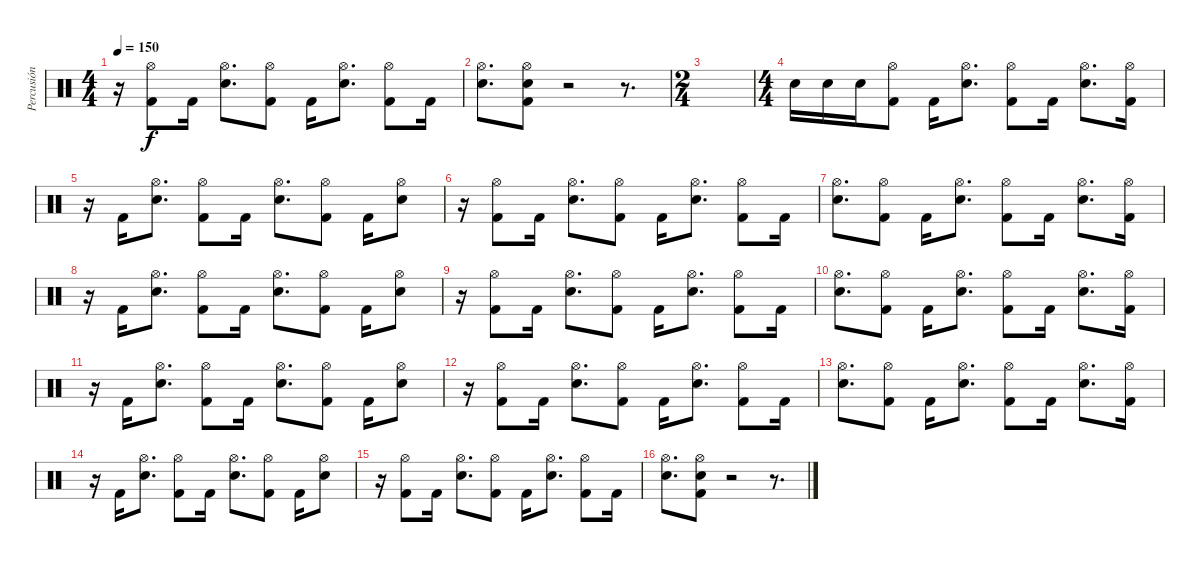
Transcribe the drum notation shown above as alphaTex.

\track ("Percusión" "Percusión") {instrument percussion}
\staff {score}
\articulation defaults
\ts (4 4)
\tempo 150
\clef neutral
\ks c
r.16{dy f} ("Hi-Hat (open)" "Kick (hit) 2").8 "Kick (hit) 2".16 ("Hi-Hat (open)" "Electric Snare (hit)").8{d} ("Hi-Hat (open)" "Kick (hit) 2").8 "Kick (hit) 2".16 ("Hi-Hat (open)" "Electric Snare (hit)").8{d} ("Hi-Hat (open)" "Kick (hit) 2").8 "Kick (hit) 2".16 |
("Hi-Hat (open)" "Electric Snare (hit)").8{d} ("Hi-Hat (open)" "Electric Snare (hit)" "Kick (hit) 2").8 r.2 r.8{d} |
\ts (2 4)
|
\ts (4 4)
"Electric Snare (hit)".16 "Electric Snare (hit)".16 "Electric Snare (hit)".16 ("Hi-Hat (open)" "Kick (hit) 2").8 "Kick (hit) 2".16 ("Hi-Hat (open)" "Electric Snare (hit)").8{d} ("Hi-Hat (open)" "Kick (hit) 2").8 "Kick (hit) 2".16 ("Hi-Hat (open)" "Electric Snare (hit)").8{d} ("Hi-Hat (open)" "Kick (hit) 2").16 |
r.16 "Kick (hit) 2".16 ("Hi-Hat (open)" "Electric Snare (hit)").8{d} ("Hi-Hat (open)" "Kick (hit) 2").8 "Kick (hit) 2".16 ("Hi-Hat (open)" "Electric Snare (hit)").8{d} ("Hi-Hat (open)" "Kick (hit) 2").8 "Kick (hit) 2".16 ("Hi-Hat (open)" "Electric Snare (hit)").8 |
r.16 ("Hi-Hat (open)" "Kick (hit) 2").8 "Kick (hit) 2".16 ("Hi-Hat (open)" "Electric Snare (hit)").8{d} ("Hi-Hat (open)" "Kick (hit) 2").8 "Kick (hit) 2".16 ("Hi-Hat (open)" "Electric Snare (hit)").8{d} ("Hi-Hat (open)" "Kick (hit) 2").8 "Kick (hit) 2".16 |
("Hi-Hat (open)" "Electric Snare (hit)").8{d} ("Hi-Hat (open)" "Kick (hit) 2").8 "Kick (hit) 2".16 ("Hi-Hat (open)" "Electric Snare (hit)").8{d} ("Hi-Hat (open)" "Kick (hit) 2").8 "Kick (hit) 2".16 ("Hi-Hat (open)" "Electric Snare (hit)").8{d} ("Hi-Hat (open)" "Kick (hit) 2").16 |
r.16 "Kick (hit) 2".16 ("Hi-Hat (open)" "Electric Snare (hit)").8{d} ("Hi-Hat (open)" "Kick (hit) 2").8 "Kick (hit) 2".16 ("Hi-Hat (open)" "Electric Snare (hit)").8{d} ("Hi-Hat (open)" "Kick (hit) 2").8 "Kick (hit) 2".16 ("Hi-Hat (open)" "Electric Snare (hit)").8 |
r.16 ("Hi-Hat (open)" "Kick (hit) 2").8 "Kick (hit) 2".16 ("Hi-Hat (open)" "Electric Snare (hit)").8{d} ("Hi-Hat (open)" "Kick (hit) 2").8 "Kick (hit) 2".16 ("Hi-Hat (open)" "Electric Snare (hit)").8{d} ("Hi-Hat (open)" "Kick (hit) 2").8 "Kick (hit) 2".16 |
("Hi-Hat (open)" "Electric Snare (hit)").8{d} ("Hi-Hat (open)" "Kick (hit) 2").8 "Kick (hit) 2".16 ("Hi-Hat (open)" "Electric Snare (hit)").8{d} ("Hi-Hat (open)" "Kick (hit) 2").8 "Kick (hit) 2".16 ("Hi-Hat (open)" "Electric Snare (hit)").8{d} ("Hi-Hat (open)" "Kick (hit) 2").16 |
r.16 "Kick (hit) 2".16 ("Hi-Hat (open)" "Electric Snare (hit)").8{d} ("Hi-Hat (open)" "Kick (hit) 2").8 "Kick (hit) 2".16 ("Hi-Hat (open)" "Electric Snare (hit)").8{d} ("Hi-Hat (open)" "Kick (hit) 2").8 "Kick (hit) 2".16 ("Hi-Hat (open)" "Electric Snare (hit)").8 |
r.16 ("Hi-Hat (open)" "Kick (hit) 2").8 "Kick (hit) 2".16 ("Hi-Hat (open)" "Electric Snare (hit)").8{d} ("Hi-Hat (open)" "Kick (hit) 2").8 "Kick (hit) 2".16 ("Hi-Hat (open)" "Electric Snare (hit)").8{d} ("Hi-Hat (open)" "Kick (hit) 2").8 "Kick (hit) 2".16 |
("Hi-Hat (open)" "Electric Snare (hit)").8{d} ("Hi-Hat (open)" "Kick (hit) 2").8 "Kick (hit) 2".16 ("Hi-Hat (open)" "Electric Snare (hit)").8{d} ("Hi-Hat (open)" "Kick (hit) 2").8 "Kick (hit) 2".16 ("Hi-Hat (open)" "Electric Snare (hit)").8{d} ("Hi-Hat (open)" "Kick (hit) 2").16 |
r.16 "Kick (hit) 2".16 ("Hi-Hat (open)" "Electric Snare (hit)").8{d} ("Hi-Hat (open)" "Kick (hit) 2").8 "Kick (hit) 2".16 ("Hi-Hat (open)" "Electric Snare (hit)").8{d} ("Hi-Hat (open)" "Kick (hit) 2").8 "Kick (hit) 2".16 ("Hi-Hat (open)" "Electric Snare (hit)").8 |
r.16 ("Hi-Hat (open)" "Kick (hit) 2").8 "Kick (hit) 2".16 ("Hi-Hat (open)" "Electric Snare (hit)").8{d} ("Hi-Hat (open)" "Kick (hit) 2").8 "Kick (hit) 2".16 ("Hi-Hat (open)" "Electric Snare (hit)").8{d} ("Hi-Hat (open)" "Kick (hit) 2").8 "Kick (hit) 2".16 |
("Hi-Hat (open)" "Electric Snare (hit)").8{d} ("Hi-Hat (open)" "Electric Snare (hit)" "Kick (hit) 2").8 r.2 r.8{d}
